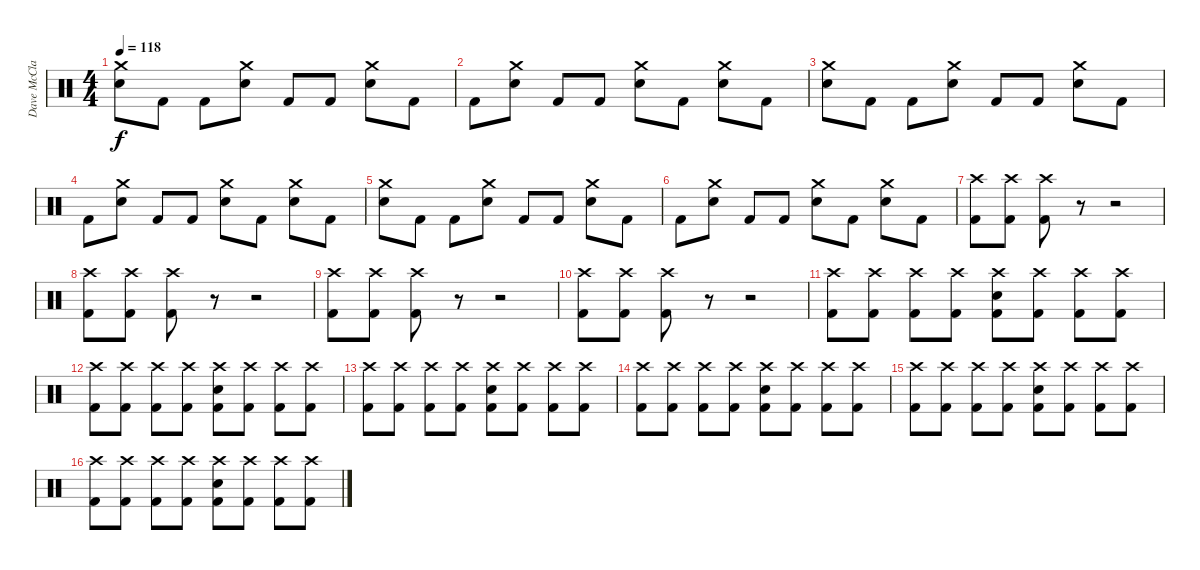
\track ("Dave McClain" "Dave McCla") {instrument percussion}
\staff {score}
\articulation defaults
\ts (4 4)
\tempo 118
\clef neutral
\ks c
("Snare (hit) 2" "Crash medium (hit)").8{dy f} "Kick (hit) 2".8 "Kick (hit) 2".8 ("Snare (hit) 2" "Crash medium (hit)").8 "Kick (hit) 2".8 "Kick (hit) 2".8 ("Snare (hit) 2" "Crash medium (hit)").8 "Kick (hit) 2".8 |
"Kick (hit) 2".8 ("Snare (hit) 2" "Crash medium (hit)").8 "Kick (hit) 2".8 "Kick (hit) 2".8 ("Snare (hit) 2" "Crash medium (hit)").8 "Kick (hit) 2".8 ("Snare (hit) 2" "Crash medium (hit)").8 "Kick (hit) 2".8 |
("Snare (hit) 2" "Crash medium (hit)").8 "Kick (hit) 2".8 "Kick (hit) 2".8 ("Snare (hit) 2" "Crash medium (hit)").8 "Kick (hit) 2".8 "Kick (hit) 2".8 ("Snare (hit) 2" "Crash medium (hit)").8 "Kick (hit) 2".8 |
"Kick (hit) 2".8 ("Snare (hit) 2" "Crash medium (hit)").8 "Kick (hit) 2".8 "Kick (hit) 2".8 ("Snare (hit) 2" "Crash medium (hit)").8 "Kick (hit) 2".8 ("Snare (hit) 2" "Crash medium (hit)").8 "Kick (hit) 2".8 |
("Snare (hit) 2" "Crash medium (hit)").8 "Kick (hit) 2".8 "Kick (hit) 2".8 ("Snare (hit) 2" "Crash medium (hit)").8 "Kick (hit) 2".8 "Kick (hit) 2".8 ("Snare (hit) 2" "Crash medium (hit)").8 "Kick (hit) 2".8 |
"Kick (hit) 2".8 ("Snare (hit) 2" "Crash medium (hit)").8 "Kick (hit) 2".8 "Kick (hit) 2".8 ("Snare (hit) 2" "Crash medium (hit)").8 "Kick (hit) 2".8 ("Snare (hit) 2" "Crash medium (hit)").8 "Kick (hit) 2".8 |
("Kick (hit) 2" "Crash high (hit)").8 ("Kick (hit) 2" "Crash high (hit)").8 ("Kick (hit) 2" "Crash high (hit)").8 r.8 r.2 |
("Kick (hit) 2" "Crash high (hit)").8 ("Kick (hit) 2" "Crash high (hit)").8 ("Kick (hit) 2" "Crash high (hit)").8 r.8 r.2 |
("Kick (hit) 2" "Crash high (hit)").8 ("Kick (hit) 2" "Crash high (hit)").8 ("Kick (hit) 2" "Crash high (hit)").8 r.8 r.2 |
("Kick (hit) 2" "Crash high (hit)").8 ("Kick (hit) 2" "Crash high (hit)").8 ("Kick (hit) 2" "Crash high (hit)").8 r.8 r.2 |
("Kick (hit) 2" "Crash high (hit)").8 ("Kick (hit) 2" "Crash high (hit)").8 ("Kick (hit) 2" "Crash high (hit)").8 ("Kick (hit) 2" "Crash high (hit)").8 ("Kick (hit) 2" "Snare (hit) 2" "Crash high (hit)").8 ("Kick (hit) 2" "Crash high (hit)").8 ("Kick (hit) 2" "Crash high (hit)").8 ("Kick (hit) 2" "Crash high (hit)").8 |
("Kick (hit) 2" "Crash high (hit)").8 ("Kick (hit) 2" "Crash high (hit)").8 ("Kick (hit) 2" "Crash high (hit)").8 ("Kick (hit) 2" "Crash high (hit)").8 ("Kick (hit) 2" "Snare (hit) 2" "Crash high (hit)").8 ("Kick (hit) 2" "Crash high (hit)").8 ("Kick (hit) 2" "Crash high (hit)").8 ("Kick (hit) 2" "Crash high (hit)").8 |
("Kick (hit) 2" "Crash high (hit)").8 ("Kick (hit) 2" "Crash high (hit)").8 ("Kick (hit) 2" "Crash high (hit)").8 ("Kick (hit) 2" "Crash high (hit)").8 ("Kick (hit) 2" "Snare (hit) 2" "Crash high (hit)").8 ("Kick (hit) 2" "Crash high (hit)").8 ("Kick (hit) 2" "Crash high (hit)").8 ("Kick (hit) 2" "Crash high (hit)").8 |
("Kick (hit) 2" "Crash high (hit)").8 ("Kick (hit) 2" "Crash high (hit)").8 ("Kick (hit) 2" "Crash high (hit)").8 ("Kick (hit) 2" "Crash high (hit)").8 ("Kick (hit) 2" "Snare (hit) 2" "Crash high (hit)").8 ("Kick (hit) 2" "Crash high (hit)").8 ("Kick (hit) 2" "Crash high (hit)").8 ("Kick (hit) 2" "Crash high (hit)").8 |
("Kick (hit) 2" "Crash high (hit)").8 ("Kick (hit) 2" "Crash high (hit)").8 ("Kick (hit) 2" "Crash high (hit)").8 ("Kick (hit) 2" "Crash high (hit)").8 ("Kick (hit) 2" "Snare (hit) 2" "Crash high (hit)").8 ("Kick (hit) 2" "Crash high (hit)").8 ("Kick (hit) 2" "Crash high (hit)").8 ("Kick (hit) 2" "Crash high (hit)").8 |
("Kick (hit) 2" "Crash high (hit)").8 ("Kick (hit) 2" "Crash high (hit)").8 ("Kick (hit) 2" "Crash high (hit)").8 ("Kick (hit) 2" "Crash high (hit)").8 ("Kick (hit) 2" "Snare (hit) 2" "Crash high (hit)").8 ("Kick (hit) 2" "Crash high (hit)").8 ("Kick (hit) 2" "Crash high (hit)").8 ("Kick (hit) 2" "Crash high (hit)").8
